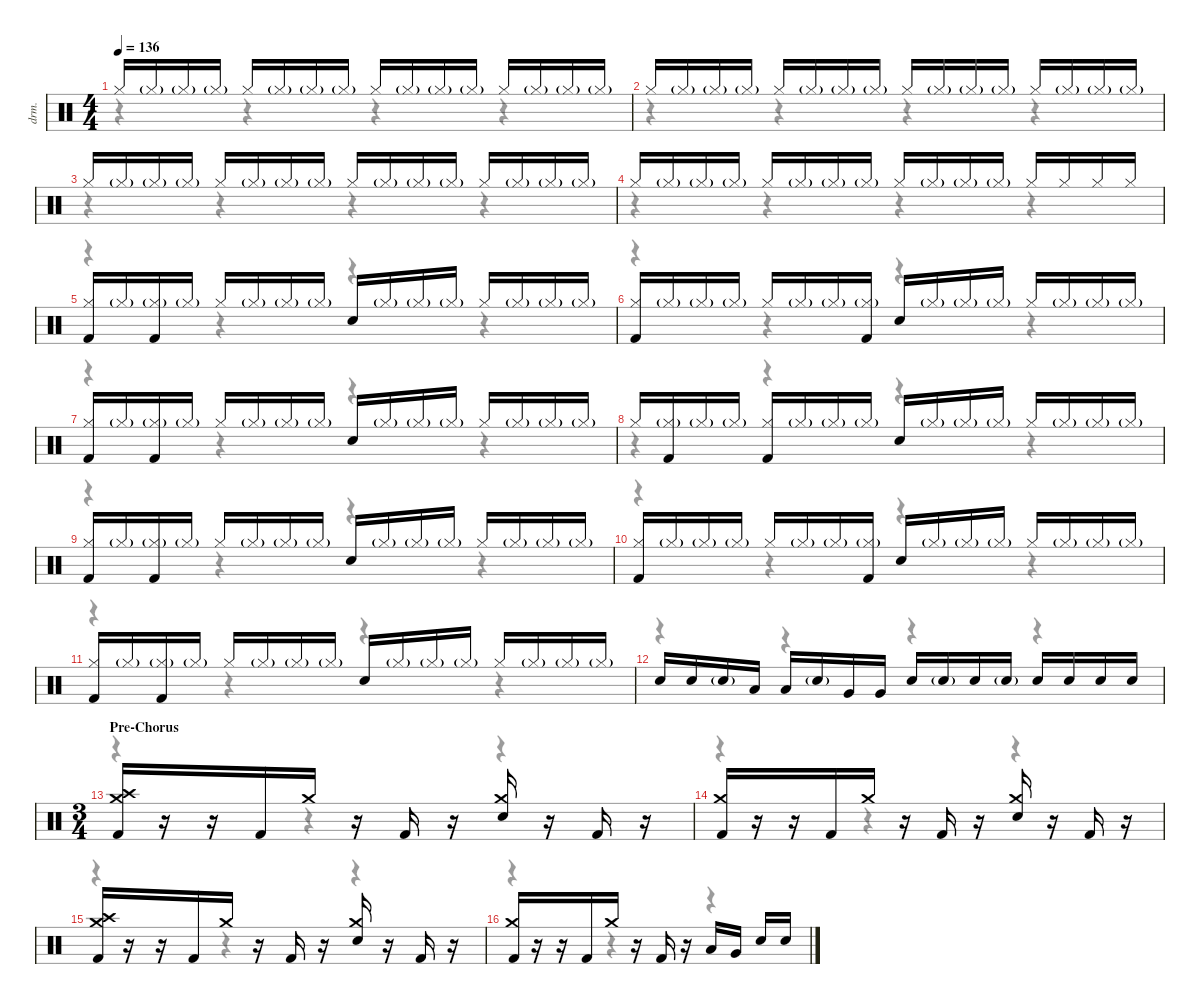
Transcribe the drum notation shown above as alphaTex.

\defaultSystemsLayout 4
\hideDynamics
\bracketExtendMode nobrackets
\track ("Drums" "drm.") {instrument percussion}
\staff {score}
\articulation defaults
\voice
\ts (4 4)
\tempo 136
\clef neutral
\ks c "Hi-Hat (closed)".16{dy f beam Up} "Hi-Hat (closed)"{g}.16{beam Up} "Hi-Hat (closed)"{g}.16{dy ff beam Up} "Hi-Hat (closed)"{g}.16{beam Up} "Hi-Hat (closed)".16{dy f beam Up} "Hi-Hat (closed)"{g}.16{beam Up} "Hi-Hat (closed)"{g}.16{dy ff beam Up} "Hi-Hat (closed)"{g}.16{beam Up} "Hi-Hat (closed)".16{dy f beam Up} "Hi-Hat (closed)"{g}.16{beam Up} "Hi-Hat (closed)"{g}.16{dy ff beam Up} "Hi-Hat (closed)"{g}.16{beam Up} "Hi-Hat (closed)".16{dy f beam Up} "Hi-Hat (closed)"{g}.16{beam Up} "Hi-Hat (closed)"{g}.16{dy ff beam Up} "Hi-Hat (closed)"{g}.16{beam Up}
|
"Hi-Hat (closed)".16{dy f beam Up} "Hi-Hat (closed)"{g}.16{beam Up} "Hi-Hat (closed)"{g}.16{dy ff beam Up} "Hi-Hat (closed)"{g}.16{beam Up} "Hi-Hat (closed)".16{dy f beam Up} "Hi-Hat (closed)"{g}.16{beam Up} "Hi-Hat (closed)"{g}.16{dy ff beam Up} "Hi-Hat (closed)"{g}.16{beam Up} "Hi-Hat (closed)".16{dy f beam Up} "Hi-Hat (closed)"{g}.16{beam Up} "Hi-Hat (closed)"{g}.16{dy ff beam Up} "Hi-Hat (closed)"{g}.16{beam Up} "Hi-Hat (closed)".16{dy f beam Up} "Hi-Hat (closed)"{g}.16{beam Up} "Hi-Hat (closed)"{g}.16{dy ff beam Up} "Hi-Hat (closed)"{g}.16{beam Up} |
"Hi-Hat (closed)".16{dy f beam Up} "Hi-Hat (closed)"{g}.16{beam Up} "Hi-Hat (closed)"{g}.16{dy ff beam Up} "Hi-Hat (closed)"{g}.16{beam Up} "Hi-Hat (closed)".16{dy f beam Up} "Hi-Hat (closed)"{g}.16{beam Up} "Hi-Hat (closed)"{g}.16{dy ff beam Up} "Hi-Hat (closed)"{g}.16{beam Up} "Hi-Hat (closed)".16{dy f beam Up} "Hi-Hat (closed)"{g}.16{beam Up} "Hi-Hat (closed)"{g}.16{dy ff beam Up} "Hi-Hat (closed)"{g}.16{beam Up} "Hi-Hat (closed)".16{dy f beam Up} "Hi-Hat (closed)"{g}.16{beam Up} "Hi-Hat (closed)"{g}.16{dy ff beam Up} "Hi-Hat (closed)"{g}.16{beam Up} |
"Hi-Hat (closed)".16{dy f beam Up} "Hi-Hat (closed)"{g}.16{beam Up} "Hi-Hat (closed)"{g}.16{dy ff beam Up} "Hi-Hat (closed)"{g}.16{beam Up} "Hi-Hat (closed)".16{dy f beam Up} "Hi-Hat (closed)"{g}.16{beam Up} "Hi-Hat (closed)"{g}.16{dy ff beam Up} "Hi-Hat (closed)"{g}.16{beam Up} "Hi-Hat (closed)".16{dy f beam Up} "Hi-Hat (closed)"{g}.16{beam Up} "Hi-Hat (closed)"{g}.16{dy ff beam Up} "Hi-Hat (closed)"{g}.16{beam Up} "Hi-Hat (closed)".16{dy f beam Up} "Hi-Hat (closed)".16{beam Up} "Hi-Hat (closed)".16{beam Up} "Hi-Hat (closed)".16{beam Up} |
("Hi-Hat (closed)" "Kick (hit) 2").16{beam Up} "Hi-Hat (closed)"{g}.16{beam Up} ("Hi-Hat (closed)"{g} "Kick (hit) 2").16{beam Up} "Hi-Hat (closed)"{g}.16{dy ff beam Up} "Hi-Hat (closed)".16{dy f beam Up} "Hi-Hat (closed)"{g}.16{beam Up} "Hi-Hat (closed)"{g}.16{dy ff beam Up} "Hi-Hat (closed)"{g}.16{beam Up} "Snare (hit) 2".16{dy f beam Up} "Hi-Hat (closed)"{g}.16{beam Up} "Hi-Hat (closed)"{g}.16{dy ff beam Up} "Hi-Hat (closed)"{g}.16{beam Up} "Hi-Hat (closed)".16{dy f beam Up} "Hi-Hat (closed)"{g}.16{beam Up} "Hi-Hat (closed)"{g}.16{dy ff beam Up} "Hi-Hat (closed)"{g}.16{beam Up} |
("Hi-Hat (closed)" "Kick (hit) 2").16{dy f beam Up} "Hi-Hat (closed)"{g}.16{beam Up} "Hi-Hat (closed)"{g}.16{dy ff beam Up} "Hi-Hat (closed)"{g}.16{beam Up} "Hi-Hat (closed)".16{dy f beam Up} "Hi-Hat (closed)"{g}.16{beam Up} "Hi-Hat (closed)"{g}.16{dy ff beam Up} ("Hi-Hat (closed)"{g} "Kick (hit) 2").16{dy f beam Up} "Snare (hit) 2".16{beam Up} "Hi-Hat (closed)"{g}.16{beam Up} "Hi-Hat (closed)"{g}.16{dy ff beam Up} "Hi-Hat (closed)"{g}.16{beam Up} "Hi-Hat (closed)".16{dy f beam Up} "Hi-Hat (closed)"{g}.16{beam Up} "Hi-Hat (closed)"{g}.16{dy ff beam Up} "Hi-Hat (closed)"{g}.16{beam Up} |
("Hi-Hat (closed)" "Kick (hit) 2").16{dy f beam Up} "Hi-Hat (closed)"{g}.16{beam Up} ("Hi-Hat (closed)"{g} "Kick (hit) 2").16{beam Up} "Hi-Hat (closed)"{g}.16{dy ff beam Up} "Hi-Hat (closed)".16{dy f beam Up} "Hi-Hat (closed)"{g}.16{beam Up} "Hi-Hat (closed)"{g}.16{dy ff beam Up} "Hi-Hat (closed)"{g}.16{beam Up} "Snare (hit) 2".16{dy f beam Up} "Hi-Hat (closed)"{g}.16{beam Up} "Hi-Hat (closed)"{g}.16{dy ff beam Up} "Hi-Hat (closed)"{g}.16{beam Up} "Hi-Hat (closed)".16{dy f beam Up} "Hi-Hat (closed)"{g}.16{beam Up} "Hi-Hat (closed)"{g}.16{dy ff beam Up} "Hi-Hat (closed)"{g}.16{beam Up} |
"Hi-Hat (closed)".16{dy f beam Up} ("Hi-Hat (closed)"{g} "Kick (hit) 2").16{beam Up} "Hi-Hat (closed)"{g}.16{dy ff beam Up} "Hi-Hat (closed)"{g}.16{beam Up} ("Hi-Hat (closed)" "Kick (hit) 2").16{dy f beam Up} "Hi-Hat (closed)"{g}.16{beam Up} "Hi-Hat (closed)"{g}.16{dy ff beam Up} "Hi-Hat (closed)"{g}.16{beam Up} "Snare (hit) 2".16{dy f beam Up} "Hi-Hat (closed)"{g}.16{beam Up} "Hi-Hat (closed)"{g}.16{dy ff beam Up} "Hi-Hat (closed)"{g}.16{beam Up} "Hi-Hat (closed)".16{dy f beam Up} "Hi-Hat (closed)"{g}.16{beam Up} "Hi-Hat (closed)"{g}.16{dy ff beam Up} "Hi-Hat (closed)"{g}.16{beam Up} |
("Hi-Hat (closed)" "Kick (hit) 2").16{dy f beam Up} "Hi-Hat (closed)"{g}.16{beam Up} ("Hi-Hat (closed)"{g} "Kick (hit) 2").16{beam Up} "Hi-Hat (closed)"{g}.16{dy ff beam Up} "Hi-Hat (closed)".16{dy f beam Up} "Hi-Hat (closed)"{g}.16{beam Up} "Hi-Hat (closed)"{g}.16{dy ff beam Up} "Hi-Hat (closed)"{g}.16{beam Up} "Snare (hit) 2".16{dy f beam Up} "Hi-Hat (closed)"{g}.16{beam Up} "Hi-Hat (closed)"{g}.16{dy ff beam Up} "Hi-Hat (closed)"{g}.16{beam Up} "Hi-Hat (closed)".16{dy f beam Up} "Hi-Hat (closed)"{g}.16{beam Up} "Hi-Hat (closed)"{g}.16{dy ff beam Up} "Hi-Hat (closed)"{g}.16{beam Up} |
("Hi-Hat (closed)" "Kick (hit) 2").16{dy f beam Up} "Hi-Hat (closed)"{g}.16{beam Up} "Hi-Hat (closed)"{g}.16{dy ff beam Up} "Hi-Hat (closed)"{g}.16{beam Up} "Hi-Hat (closed)".16{dy f beam Up} "Hi-Hat (closed)"{g}.16{beam Up} "Hi-Hat (closed)"{g}.16{dy ff beam Up} ("Hi-Hat (closed)"{g} "Kick (hit) 2").16{dy f beam Up} "Snare (hit) 2".16{beam Up} "Hi-Hat (closed)"{g}.16{beam Up} "Hi-Hat (closed)"{g}.16{dy ff beam Up} "Hi-Hat (closed)"{g}.16{beam Up} "Hi-Hat (closed)".16{dy f beam Up} "Hi-Hat (closed)"{g}.16{beam Up} "Hi-Hat (closed)"{g}.16{dy ff beam Up} "Hi-Hat (closed)"{g}.16{beam Up} |
("Hi-Hat (closed)" "Kick (hit) 2").16{dy f beam Up} "Hi-Hat (closed)"{g}.16{beam Up} ("Hi-Hat (closed)"{g} "Kick (hit) 2").16{beam Up} "Hi-Hat (closed)"{g}.16{dy ff beam Up} "Hi-Hat (closed)".16{dy f beam Up} "Hi-Hat (closed)"{g}.16{beam Up} "Hi-Hat (closed)"{g}.16{dy ff beam Up} "Hi-Hat (closed)"{g}.16{beam Up} "Snare (hit) 2".16{dy f beam Up} "Hi-Hat (closed)"{g}.16{beam Up} "Hi-Hat (closed)"{g}.16{dy ff beam Up} "Hi-Hat (closed)"{g}.16{beam Up} "Hi-Hat (closed)".16{dy f beam Up} "Hi-Hat (closed)"{g}.16{beam Up} "Hi-Hat (closed)"{g}.16{dy ff beam Up} "Hi-Hat (closed)"{g}.16{beam Up} |
"Snare (hit) 2".16{dy f beam Up} "Snare (hit) 2".16{beam Up} "Snare (hit) 2"{g}.16{beam Up} "Low Tom (hit)".16{beam Up} "Low Tom (hit)".16{beam Up} "Snare (hit) 2"{g}.16{beam Up} "Very Low Tom (hit)".16{beam Up} "Very Low Tom (hit)".16{beam Up} "Snare (hit) 2".16{beam Up} "Snare (hit) 2"{g}.16{beam Up} "Snare (hit) 2".16{beam Up} "Snare (hit) 2"{g}.16{beam Up} "Snare (hit) 2".16{beam Up} "Snare (hit) 2".16{beam Up} "Snare (hit) 2".16{beam Up} "Snare (hit) 2".16{beam Up} |
\ts (3 4)
\beaming (8 3 1 1 1)
\section ("" "Pre-Chorus")
("Crash medium (hit)" "Crash high (hit)" "Kick (hit) 2").16{beam Up} r.16{beam Up} r.16{beam Up} "Kick (hit) 2".16{beam Up} "Crash medium (hit)".16{beam Up} r.16{beam Up} "Kick (hit) 2".16{beam Up} r.16{beam Up} ("Crash medium (hit)" "Snare (hit) 2").16{beam Up} r.16{beam Up} "Kick (hit) 2".16{beam Up} r.16{beam Up} |
("Crash medium (hit)" "Kick (hit) 2").16{beam Up} r.16{beam Up} r.16{beam Up} "Kick (hit) 2".16{beam Up} "Crash medium (hit)".16{beam Up} r.16{beam Up} "Kick (hit) 2".16{beam Up} r.16{beam Up} ("Crash medium (hit)" "Snare (hit) 2").16{beam Up} r.16{beam Up} "Kick (hit) 2".16{beam Up} r.16{beam Up} |
("Crash medium (hit)" "Crash high (hit)" "Kick (hit) 2").16{beam Up} r.16{beam Up} r.16{beam Up} "Kick (hit) 2".16{beam Up} "Crash medium (hit)".16{beam Up} r.16{beam Up} "Kick (hit) 2".16{beam Up} r.16{beam Up} ("Crash medium (hit)" "Snare (hit) 2").16{beam Up} r.16{beam Up} "Kick (hit) 2".16{beam Up} r.16{beam Up} |
("Crash medium (hit)" "Kick (hit) 2").16{beam Up} r.16{beam Up} r.16{beam Up} "Kick (hit) 2".16{beam Up} "Crash medium (hit)".16{beam Up} r.16{beam Up} "Kick (hit) 2".16{beam Up} r.16{beam Up} "Low Tom (hit)".16{beam Up} "Very Low Tom (hit)".16{beam Up} "Snare (hit) 2".16{beam Up} "Snare (hit) 2".16{beam Up}
\voice
\clef neutral
\ottava regular
\simile none
\ks c
r.4{dy mf beam Down} r.4{beam Down} r.4{beam Down} r.4{beam Down} |
r.4{beam Down} r.4{beam Down} r.4{beam Down} r.4{beam Down} |
r.4{beam Down} r.4{beam Down} r.4{beam Down} r.4{beam Down} |
r.4{beam Down} r.4{beam Down} r.4{beam Down} r.4{beam Down} |
r.4{beam Down} r.4{beam Down} r.4{beam Down} r.4{beam Down} |
r.4{beam Down} r.4{beam Down} r.4{beam Down} r.4{beam Down} |
r.4{beam Down} r.4{beam Down} r.4{beam Down} r.4{beam Down} |
r.4{beam Down} r.4{beam Down} r.4{beam Down} r.4{beam Down} |
r.4{beam Down} r.4{beam Down} r.4{beam Down} r.4{beam Down} |
r.4{beam Down} r.4{beam Down} r.4{beam Down} r.4{beam Down} |
r.4{beam Down} r.4{beam Down} r.4{beam Down} r.4{beam Down} |
r.4{beam Down} r.4{beam Down} r.4{beam Down} r.4{beam Down} |
r.4{beam Down} r.4{beam Down} r.4{beam Down} |
r.4{beam Down} r.4{beam Down} r.4{beam Down} |
r.4{beam Down} r.4{beam Down} r.4{beam Down} |
r.4{beam Down} r.4{beam Down} r.4{beam Down}
